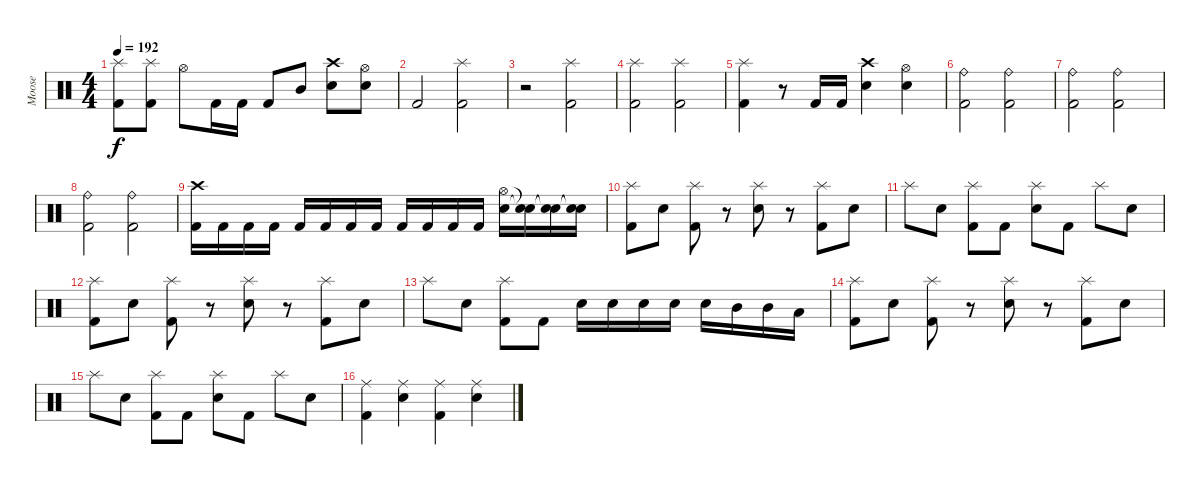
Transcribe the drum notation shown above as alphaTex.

\track ("Moose" "Moose") {instrument percussion}
\staff {score}
\articulation defaults
\ts (4 4)
\tempo 192
\clef neutral
\ks c
("Kick (hit) 2" "Splash (hit)").8{dy f} ("Kick (hit) 2" "Splash (hit)").8 "Hi-Hat (open)".8 "Kick (hit) 2".16 "Kick (hit) 2".16 "Kick (hit) 2".8 "Mid Tom (hit)".8 ("Electric Snare (hit)" "Crash high (hit)").8 ("Electric Snare (hit)" "Hi-Hat (open)").8 |
"Kick (hit) 2".2 ("Kick (hit) 2" "Splash (hit)").2 |
r.2 ("Kick (hit) 2" "Splash (hit)").2 |
("Kick (hit) 2" "Splash (hit)").2 ("Kick (hit) 2" "Splash (hit)").2 |
("Kick (hit) 2" "Splash (hit)").4 r.8 "Kick (hit) 2".16 "Kick (hit) 2".16 ("Electric Snare (hit)" "Crash high (hit)").4 ("Snare (hit) 2" "Hi-Hat (open)").4 |
("Kick (hit) 2" "Ride (bell)").2 ("Kick (hit) 2" "Ride (bell)").2 |
("Kick (hit) 2" "Ride (bell)").2 ("Kick (hit) 2" "Ride (bell)").2 |
("Kick (hit) 2" "Ride (bell)").2 ("Kick (hit) 2" "Ride (bell)").2 |
("Kick (hit) 2" "Crash high (hit)").16 "Kick (hit) 2".16 "Kick (hit) 2".16 "Kick (hit) 2".16 "Kick (hit) 2".16 "Kick (hit) 2".16 "Kick (hit) 2".16 "Kick (hit) 2".16 "Kick (hit) 2".16 "Kick (hit) 2".16 "Kick (hit) 2".16 "Kick (hit) 2".16 ("Electric Snare (hit)" "Hi-Hat (open)").16 ("Snare (hit)"{t} "Snare (hit)"{t}).16 ("Snare (hit)"{t} "Snare (hit)"{t}).16 ("Snare (hit)"{t} "Snare (hit)"{t}).16 |
("Kick (hit) 2" "Splash (hit)").8 "Snare (hit) 2".8 ("Kick (hit) 2" "Splash (hit)").8 r.8 ("Electric Snare (hit)" "Splash (hit)").8 r.8 ("Kick (hit) 2" "Splash (hit)").8 "Snare (hit) 2".8 |
"Splash (hit)".8 "Snare (hit) 2".8 ("Kick (hit) 2" "Splash (hit)").8 "Kick (hit) 2".8 ("Electric Snare (hit)" "Splash (hit)").8 "Kick (hit) 2".8 "Splash (hit)".8 "Snare (hit) 2".8 |
("Kick (hit) 2" "Splash (hit)").8 "Snare (hit) 2".8 ("Kick (hit) 2" "Splash (hit)").8 r.8 ("Electric Snare (hit)" "Splash (hit)").8 r.8 ("Kick (hit) 2" "Splash (hit)").8 "Snare (hit) 2".8 |
"Splash (hit)".8 "Snare (hit) 2".8 ("Kick (hit) 2" "Splash (hit)").8 "Kick (hit) 2".8 "Electric Snare (hit)".16 "Electric Snare (hit)".16 "Electric Snare (hit)".16 "Snare (hit) 2".16 "Snare (hit) 2".16 "Mid Tom (hit)".16 "Mid Tom (hit)".16 "Low Tom (hit)".16 |
("Kick (hit) 2" "Splash (hit)").8 "Snare (hit) 2".8 ("Kick (hit) 2" "Splash (hit)").8 r.8 ("Electric Snare (hit)" "Splash (hit)").8 r.8 ("Kick (hit) 2" "Splash (hit)").8 "Snare (hit) 2".8 |
"Splash (hit)".8 "Snare (hit) 2".8 ("Kick (hit) 2" "Splash (hit)").8 "Kick (hit) 2".8 ("Electric Snare (hit)" "Splash (hit)").8 "Kick (hit) 2".8 "Splash (hit)".8 "Snare (hit) 2".8 |
("Kick (hit) 2" "Ride (middle)").4 ("Snare (hit) 2" "Ride (middle)").4 ("Kick (hit) 2" "Ride (middle)").4 ("Snare (hit) 2" "Ride (middle)").4
